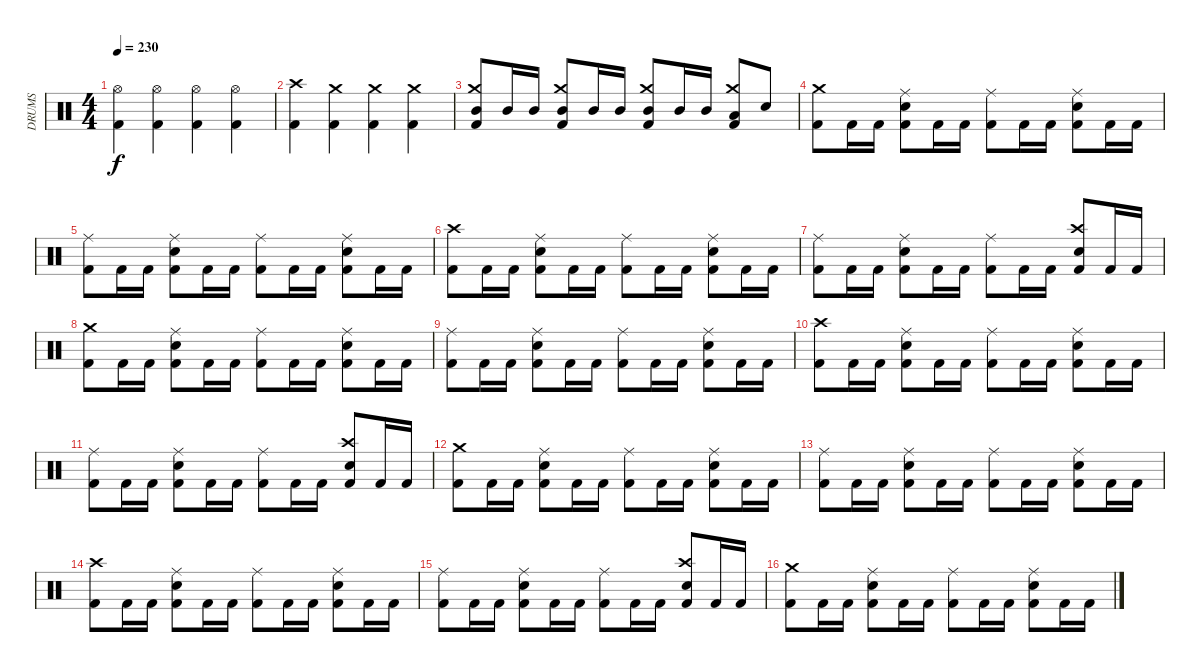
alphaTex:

\track ("DRUMS" "DRUMS") {instrument percussion}
\staff {score}
\articulation defaults
\ts (4 4)
\tempo 230
\clef neutral
\ks c
("Kick (hit) 2" "Hi-Hat (open)").4{dy f} ("Kick (hit) 2" "Hi-Hat (open)").4 ("Kick (hit) 2" "Hi-Hat (open)").4 ("Kick (hit) 2" "Hi-Hat (open)").4 |
("Kick (hit) 2" "Crash high (hit)").4 ("Kick (hit) 2" "Crash medium (hit)").4 ("Kick (hit) 2" "Crash medium (hit)").4 ("Kick (hit) 2" "Crash medium (hit)").4 |
("Kick (hit) 2" "Mid Tom (hit)" "Crash medium (hit)").8 "Mid Tom (hit)".16 "Mid Tom (hit)".16 ("Kick (hit) 2" "Mid Tom (hit)" "Crash medium (hit)").8 "Mid Tom (hit)".16 "Mid Tom (hit)".16 ("Kick (hit) 2" "Mid Tom (hit)" "Crash medium (hit)").8 "Mid Tom (hit)".16 "Mid Tom (hit)".16 ("Kick (hit) 2" "Low Tom (hit)" "Crash medium (hit)").8 "Snare (hit) 2".8 |
("Kick (hit) 2" "Crash medium (hit)").8 "Kick (hit) 2".16 "Kick (hit) 2".16 ("Kick (hit) 2" "Snare (hit) 2" "Ride (middle)").8 "Kick (hit) 2".16 "Kick (hit) 2".16 ("Kick (hit) 2" "Ride (middle)").8 "Kick (hit) 2".16 "Kick (hit) 2".16 ("Kick (hit) 2" "Snare (hit) 2" "Ride (middle)").8 "Kick (hit) 2".16 "Kick (hit) 2".16 |
("Kick (hit) 2" "Ride (middle)").8 "Kick (hit) 2".16 "Kick (hit) 2".16 ("Kick (hit) 2" "Snare (hit) 2" "Ride (middle)").8 "Kick (hit) 2".16 "Kick (hit) 2".16 ("Kick (hit) 2" "Ride (middle)").8 "Kick (hit) 2".16 "Kick (hit) 2".16 ("Kick (hit) 2" "Snare (hit) 2" "Ride (middle)").8 "Kick (hit) 2".16 "Kick (hit) 2".16 |
("Kick (hit) 2" "Crash high (hit)").8 "Kick (hit) 2".16 "Kick (hit) 2".16 ("Kick (hit) 2" "Snare (hit) 2" "Ride (middle)").8 "Kick (hit) 2".16 "Kick (hit) 2".16 ("Kick (hit) 2" "Ride (middle)").8 "Kick (hit) 2".16 "Kick (hit) 2".16 ("Kick (hit) 2" "Snare (hit) 2" "Ride (middle)").8 "Kick (hit) 2".16 "Kick (hit) 2".16 |
("Kick (hit) 2" "Ride (middle)").8 "Kick (hit) 2".16 "Kick (hit) 2".16 ("Kick (hit) 2" "Snare (hit) 2" "Ride (middle)").8 "Kick (hit) 2".16 "Kick (hit) 2".16 ("Kick (hit) 2" "Ride (middle)").8 "Kick (hit) 2".16 "Kick (hit) 2".16 ("Kick (hit) 2" "Snare (hit) 2" "Crash high (hit)").8 "Kick (hit) 2".16 "Kick (hit) 2".16 |
("Kick (hit) 2" "Crash medium (hit)").8 "Kick (hit) 2".16 "Kick (hit) 2".16 ("Kick (hit) 2" "Snare (hit) 2" "Ride (middle)").8 "Kick (hit) 2".16 "Kick (hit) 2".16 ("Kick (hit) 2" "Ride (middle)").8 "Kick (hit) 2".16 "Kick (hit) 2".16 ("Kick (hit) 2" "Snare (hit) 2" "Ride (middle)").8 "Kick (hit) 2".16 "Kick (hit) 2".16 |
("Kick (hit) 2" "Ride (middle)").8 "Kick (hit) 2".16 "Kick (hit) 2".16 ("Kick (hit) 2" "Snare (hit) 2" "Ride (middle)").8 "Kick (hit) 2".16 "Kick (hit) 2".16 ("Kick (hit) 2" "Ride (middle)").8 "Kick (hit) 2".16 "Kick (hit) 2".16 ("Kick (hit) 2" "Snare (hit) 2" "Ride (middle)").8 "Kick (hit) 2".16 "Kick (hit) 2".16 |
("Kick (hit) 2" "Crash high (hit)").8 "Kick (hit) 2".16 "Kick (hit) 2".16 ("Kick (hit) 2" "Snare (hit) 2" "Ride (middle)").8 "Kick (hit) 2".16 "Kick (hit) 2".16 ("Kick (hit) 2" "Ride (middle)").8 "Kick (hit) 2".16 "Kick (hit) 2".16 ("Kick (hit) 2" "Snare (hit) 2" "Ride (middle)").8 "Kick (hit) 2".16 "Kick (hit) 2".16 |
("Kick (hit) 2" "Ride (middle)").8 "Kick (hit) 2".16 "Kick (hit) 2".16 ("Kick (hit) 2" "Snare (hit) 2" "Ride (middle)").8 "Kick (hit) 2".16 "Kick (hit) 2".16 ("Kick (hit) 2" "Ride (middle)").8 "Kick (hit) 2".16 "Kick (hit) 2".16 ("Kick (hit) 2" "Snare (hit) 2" "Crash high (hit)").8 "Kick (hit) 2".16 "Kick (hit) 2".16 |
("Kick (hit) 2" "Crash medium (hit)").8 "Kick (hit) 2".16 "Kick (hit) 2".16 ("Kick (hit) 2" "Snare (hit) 2" "Ride (middle)").8 "Kick (hit) 2".16 "Kick (hit) 2".16 ("Kick (hit) 2" "Ride (middle)").8 "Kick (hit) 2".16 "Kick (hit) 2".16 ("Kick (hit) 2" "Snare (hit) 2" "Ride (middle)").8 "Kick (hit) 2".16 "Kick (hit) 2".16 |
("Kick (hit) 2" "Ride (middle)").8 "Kick (hit) 2".16 "Kick (hit) 2".16 ("Kick (hit) 2" "Snare (hit) 2" "Ride (middle)").8 "Kick (hit) 2".16 "Kick (hit) 2".16 ("Kick (hit) 2" "Ride (middle)").8 "Kick (hit) 2".16 "Kick (hit) 2".16 ("Kick (hit) 2" "Snare (hit) 2" "Ride (middle)").8 "Kick (hit) 2".16 "Kick (hit) 2".16 |
("Kick (hit) 2" "Crash high (hit)").8 "Kick (hit) 2".16 "Kick (hit) 2".16 ("Kick (hit) 2" "Snare (hit) 2" "Ride (middle)").8 "Kick (hit) 2".16 "Kick (hit) 2".16 ("Kick (hit) 2" "Ride (middle)").8 "Kick (hit) 2".16 "Kick (hit) 2".16 ("Kick (hit) 2" "Snare (hit) 2" "Ride (middle)").8 "Kick (hit) 2".16 "Kick (hit) 2".16 |
("Kick (hit) 2" "Ride (middle)").8 "Kick (hit) 2".16 "Kick (hit) 2".16 ("Kick (hit) 2" "Snare (hit) 2" "Ride (middle)").8 "Kick (hit) 2".16 "Kick (hit) 2".16 ("Kick (hit) 2" "Ride (middle)").8 "Kick (hit) 2".16 "Kick (hit) 2".16 ("Kick (hit) 2" "Snare (hit) 2" "Crash high (hit)").8 "Kick (hit) 2".16 "Kick (hit) 2".16 |
("Kick (hit) 2" "Crash medium (hit)").8 "Kick (hit) 2".16 "Kick (hit) 2".16 ("Kick (hit) 2" "Snare (hit) 2" "Ride (middle)").8 "Kick (hit) 2".16 "Kick (hit) 2".16 ("Kick (hit) 2" "Ride (middle)").8 "Kick (hit) 2".16 "Kick (hit) 2".16 ("Kick (hit) 2" "Snare (hit) 2" "Ride (middle)").8 "Kick (hit) 2".16 "Kick (hit) 2".16
